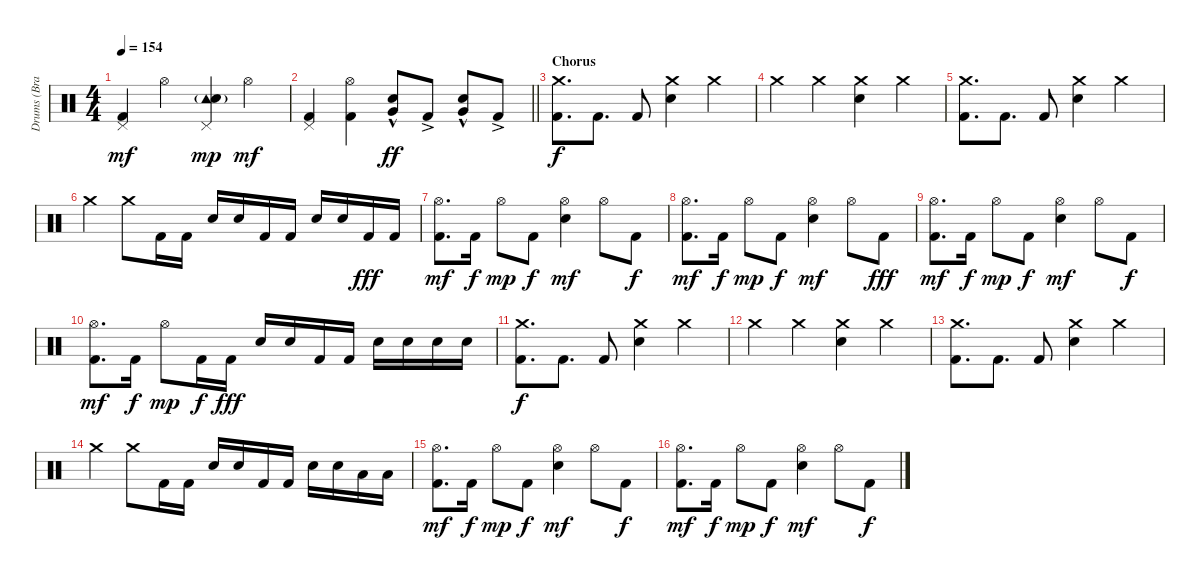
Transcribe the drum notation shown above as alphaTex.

\track ("Drums (Brandon Saller)" "Drums (Bra") {instrument percussion}
\staff {score}
\articulation defaults
\ts (4 4)
\tempo 154
\clef neutral
\ks c
("Pedal Hi-Hat (hit)" "Kick (hit) 2").4{dy mf} "Hi-Hat (open)".4 ("Pedal Hi-Hat (hit)" "Tambourine (hit)"{g} "Electric Snare (hit)").4{dy mp} "Hi-Hat (open)".4{dy mf} |
\barLineRight lightlight
("Pedal Hi-Hat (hit)" "Kick (hit) 2").4 ("Hi-Hat (open)" "Kick (hit) 2").4 ("Electric Snare (hit)"{hac} "Very Low Tom (hit)"{hac}).8{dy ff} "Kick (hit) 2"{ac}.8 ("Electric Snare (hit)"{hac} "Very Low Tom (hit)"{hac}).8 "Kick (hit) 2"{ac}.8 |
\section ("" "Chorus")
("Crash medium (hit)" "Kick (hit) 2").8{d dy f} "Kick (hit) 2".8{d} "Kick (hit) 2".8 ("Crash medium (hit)" "Electric Snare (hit)").4 "Crash medium (hit)".4 |
"Crash medium (hit)".4 "Crash medium (hit)".4 ("Crash medium (hit)" "Electric Snare (hit)").4 "Crash medium (hit)".4 |
("Crash medium (hit)" "Kick (hit) 2").8{d} "Kick (hit) 2".8{d} "Kick (hit) 2".8 ("Crash medium (hit)" "Electric Snare (hit)").4 "Crash medium (hit)".4 |
"Crash medium (hit)".4 "Crash medium (hit)".8 "Kick (hit) 2".16 "Kick (hit) 2".16 "Electric Snare (hit)".16 "Electric Snare (hit)".16 "Kick (hit) 2".16 "Kick (hit) 2".16 "Electric Snare (hit)".16 "Electric Snare (hit)".16 "Kick (hit) 2".16{dy fff} "Kick (hit) 2".16 |
("Hi-Hat (open)" "Kick (hit) 2").8{d dy mf} "Kick (hit) 2".16{dy f} "Hi-Hat (open)".8{dy mp} "Kick (hit) 2".8{dy f} ("Hi-Hat (open)" "Electric Snare (hit)").4{dy mf} "Hi-Hat (open)".8 "Kick (hit) 2".8{dy f} |
("Hi-Hat (open)" "Kick (hit) 2").8{d dy mf} "Kick (hit) 2".16{dy f} "Hi-Hat (open)".8{dy mp} "Kick (hit) 2".8{dy f} ("Hi-Hat (open)" "Electric Snare (hit)").4{dy mf} "Hi-Hat (open)".8 "Kick (hit) 2".8{dy fff} |
("Hi-Hat (open)" "Kick (hit) 2").8{d dy mf} "Kick (hit) 2".16{dy f} "Hi-Hat (open)".8{dy mp} "Kick (hit) 2".8{dy f} ("Hi-Hat (open)" "Electric Snare (hit)").4{dy mf} "Hi-Hat (open)".8 "Kick (hit) 2".8{dy f} |
("Hi-Hat (open)" "Kick (hit) 2").8{d dy mf} "Kick (hit) 2".16{dy f} "Hi-Hat (open)".8{dy mp} "Kick (hit) 2".16{dy f} "Kick (hit) 2".16{dy fff} "Electric Snare (hit)".16 "Electric Snare (hit)".16 "Kick (hit) 2".16 "Kick (hit) 2".16 "Electric Snare (hit)".16 "Electric Snare (hit)".16 "Electric Snare (hit)".16 "Electric Snare (hit)".16 |
("Crash medium (hit)" "Kick (hit) 2").8{d dy f} "Kick (hit) 2".8{d} "Kick (hit) 2".8 ("Crash medium (hit)" "Electric Snare (hit)").4 "Crash medium (hit)".4 |
"Crash medium (hit)".4 "Crash medium (hit)".4 ("Crash medium (hit)" "Electric Snare (hit)").4 "Crash medium (hit)".4 |
("Crash medium (hit)" "Kick (hit) 2").8{d} "Kick (hit) 2".8{d} "Kick (hit) 2".8 ("Crash medium (hit)" "Electric Snare (hit)").4 "Crash medium (hit)".4 |
"Crash medium (hit)".4 "Crash medium (hit)".8 "Kick (hit) 2".16 "Kick (hit) 2".16 "Electric Snare (hit)".16 "Electric Snare (hit)".16 "Kick (hit) 2".16 "Kick (hit) 2".16 "Electric Snare (hit)".16 "Electric Snare (hit)".16 "Low Tom (hit)".16 "Low Tom (hit)".16 |
("Hi-Hat (open)" "Kick (hit) 2").8{d dy mf} "Kick (hit) 2".16{dy f} "Hi-Hat (open)".8{dy mp} "Kick (hit) 2".8{dy f} ("Hi-Hat (open)" "Electric Snare (hit)").4{dy mf} "Hi-Hat (open)".8 "Kick (hit) 2".8{dy f} |
("Hi-Hat (open)" "Kick (hit) 2").8{d dy mf} "Kick (hit) 2".16{dy f} "Hi-Hat (open)".8{dy mp} "Kick (hit) 2".8{dy f} ("Hi-Hat (open)" "Electric Snare (hit)").4{dy mf} "Hi-Hat (open)".8 "Kick (hit) 2".8{dy f}
